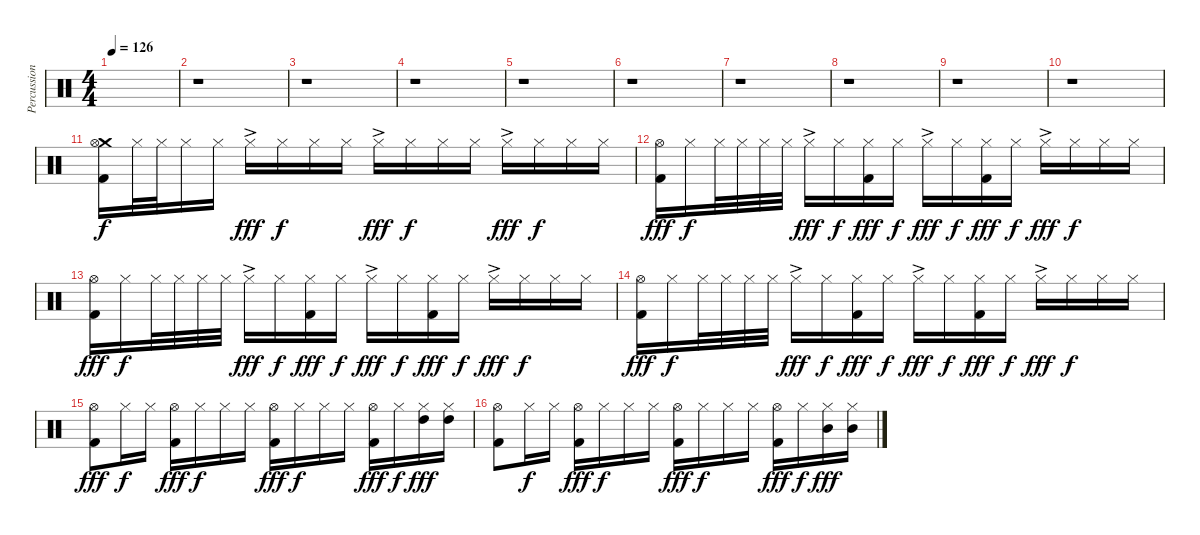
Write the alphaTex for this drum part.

\track ("Percussion" "Percussion") {instrument percussion}
\staff {score}
\articulation defaults
\ts (4 4)
\tempo 126
\clef neutral
\ks c
|
r.1 |
r.1 |
r.1 |
r.1 |
r.1 |
r.1 |
r.1 |
r.1 |
r.1 |
("Crash medium (hit)" "Kick (hit) 2" "Hi-Hat (open)").16 "Hi-Hat (closed)".32{dy f} "Hi-Hat (closed)".32 "Hi-Hat (closed)".16 "Hi-Hat (closed)".16 "Hi-Hat (closed)"{ac}.16{dy fff} "Hi-Hat (closed)".16{dy f} "Hi-Hat (closed)".16 "Hi-Hat (closed)".16 "Hi-Hat (closed)"{ac}.16{dy fff} "Hi-Hat (closed)".16{dy f} "Hi-Hat (closed)".16 "Hi-Hat (closed)".16 "Hi-Hat (closed)"{ac}.16{dy fff} "Hi-Hat (closed)".16{dy f} "Hi-Hat (closed)".16 "Hi-Hat (closed)".16 |
("Kick (hit) 2" "Hi-Hat (open)").16{dy fff} "Hi-Hat (closed)".16{dy f} "Hi-Hat (closed)".32 "Hi-Hat (closed)".32 "Hi-Hat (closed)".32 "Hi-Hat (closed)".32 "Hi-Hat (closed)"{ac}.16{dy fff} "Hi-Hat (closed)".16{dy f} ("Kick (hit) 2" "Hi-Hat (closed)").16{dy fff} "Hi-Hat (closed)".16{dy f} "Hi-Hat (closed)"{ac}.16{dy fff} "Hi-Hat (closed)".16{dy f} ("Kick (hit) 2" "Hi-Hat (closed)").16{dy fff} "Hi-Hat (closed)".16{dy f} "Hi-Hat (closed)"{ac}.16{dy fff} "Hi-Hat (closed)".16{dy f} "Hi-Hat (closed)".16 "Hi-Hat (closed)".16 |
("Kick (hit) 2" "Hi-Hat (open)").16{dy fff} "Hi-Hat (closed)".16{dy f} "Hi-Hat (closed)".32 "Hi-Hat (closed)".32 "Hi-Hat (closed)".32 "Hi-Hat (closed)".32 "Hi-Hat (closed)"{ac}.16{dy fff} "Hi-Hat (closed)".16{dy f} ("Kick (hit) 2" "Hi-Hat (closed)").16{dy fff} "Hi-Hat (closed)".16{dy f} "Hi-Hat (closed)"{ac}.16{dy fff} "Hi-Hat (closed)".16{dy f} ("Kick (hit) 2" "Hi-Hat (closed)").16{dy fff} "Hi-Hat (closed)".16{dy f} "Hi-Hat (closed)"{ac}.16{dy fff} "Hi-Hat (closed)".16{dy f} "Hi-Hat (closed)".16 "Hi-Hat (closed)".16 |
("Kick (hit) 2" "Hi-Hat (open)").16{dy fff} "Hi-Hat (closed)".16{dy f} "Hi-Hat (closed)".32 "Hi-Hat (closed)".32 "Hi-Hat (closed)".32 "Hi-Hat (closed)".32 "Hi-Hat (closed)"{ac}.16{dy fff} "Hi-Hat (closed)".16{dy f} ("Kick (hit) 2" "Hi-Hat (closed)").16{dy fff} "Hi-Hat (closed)".16{dy f} "Hi-Hat (closed)"{ac}.16{dy fff} "Hi-Hat (closed)".16{dy f} ("Kick (hit) 2" "Hi-Hat (closed)").16{dy fff} "Hi-Hat (closed)".16{dy f} "Hi-Hat (closed)"{ac}.16{dy fff} "Hi-Hat (closed)".16{dy f} "Hi-Hat (closed)".16 "Hi-Hat (closed)".16 |
("Kick (hit) 2" "Hi-Hat (open)").8{dy fff} "Hi-Hat (closed)".16{dy f} "Hi-Hat (closed)".16 ("Kick (hit) 2" "Hi-Hat (open)").16{dy fff} "Hi-Hat (closed)".16{dy f} "Hi-Hat (closed)".16 "Hi-Hat (closed)".16 ("Kick (hit) 2" "Hi-Hat (open)").16{dy fff} "Hi-Hat (closed)".16{dy f} "Hi-Hat (closed)".16 "Hi-Hat (closed)".16 ("Kick (hit) 2" "Hi-Hat (open)").16{dy fff} "Hi-Hat (closed)".16{dy f} ("High Tom (hit)" "Hi-Hat (closed)").16{dy fff} ("High Tom (hit)" "Hi-Hat (closed)").16 |
("Kick (hit) 2" "Hi-Hat (open)").8 "Hi-Hat (closed)".16{dy f} "Hi-Hat (closed)".16 ("Kick (hit) 2" "Hi-Hat (open)").16{dy fff} "Hi-Hat (closed)".16{dy f} "Hi-Hat (closed)".16 "Hi-Hat (closed)".16 ("Kick (hit) 2" "Hi-Hat (open)").16{dy fff} "Hi-Hat (closed)".16{dy f} "Hi-Hat (closed)".16 "Hi-Hat (closed)".16 ("Kick (hit) 2" "Hi-Hat (open)").16{dy fff} "Hi-Hat (closed)".16{dy f} ("Mid Tom (hit)" "Hi-Hat (closed)").16{dy fff} ("Mid Tom (hit)" "Hi-Hat (closed)").16
